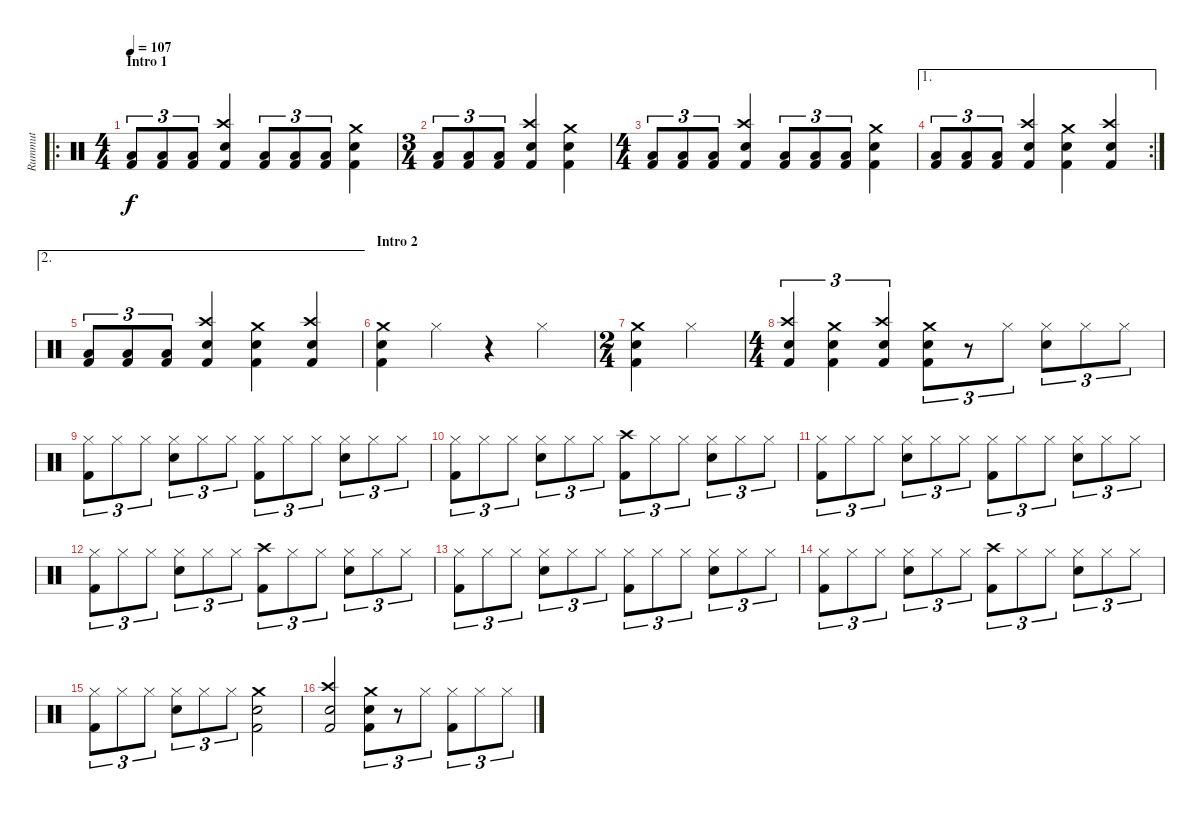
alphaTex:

\track ("Rummut" "Rummut") {instrument percussion}
\staff {score}
\articulation defaults
\ro
\ts (4 4)
\section ("" "Intro 1")
\tempo 107
\clef neutral
\ks c
("Low Floor Tom (hit)" "Kick (hit) 2").8{tu (3 2) dy f} ("Low Floor Tom (hit)" "Kick (hit) 2").8{tu (3 2)} ("Low Floor Tom (hit)" "Kick (hit) 2").8{tu (3 2)} ("Crash high (hit)" "Snare (hit) 2" "Kick (hit) 2").4 ("Low Floor Tom (hit)" "Kick (hit) 2").8{tu (3 2)} ("Low Floor Tom (hit)" "Kick (hit) 2").8{tu (3 2)} ("Low Floor Tom (hit)" "Kick (hit) 2").8{tu (3 2)} ("Crash medium (hit)" "Snare (hit) 2" "Kick (hit) 2").4 |
\ts (3 4)
("Low Floor Tom (hit)" "Kick (hit) 2").8{tu (3 2)} ("Low Floor Tom (hit)" "Kick (hit) 2").8{tu (3 2)} ("Low Floor Tom (hit)" "Kick (hit) 2").8{tu (3 2)} ("Crash high (hit)" "Snare (hit) 2" "Kick (hit) 2").4 ("Crash medium (hit)" "Snare (hit) 2" "Kick (hit) 2").4 |
\ts (4 4)
("Low Floor Tom (hit)" "Kick (hit) 2").8{tu (3 2)} ("Low Floor Tom (hit)" "Kick (hit) 2").8{tu (3 2)} ("Low Floor Tom (hit)" "Kick (hit) 2").8{tu (3 2)} ("Crash high (hit)" "Snare (hit) 2" "Kick (hit) 2").4 ("Low Floor Tom (hit)" "Kick (hit) 2").8{tu (3 2)} ("Low Floor Tom (hit)" "Kick (hit) 2").8{tu (3 2)} ("Low Floor Tom (hit)" "Kick (hit) 2").8{tu (3 2)} ("Crash medium (hit)" "Snare (hit) 2" "Kick (hit) 2").4 |
\ae 1
\rc 2
("Low Floor Tom (hit)" "Kick (hit) 2").8{tu (3 2)} ("Low Floor Tom (hit)" "Kick (hit) 2").8{tu (3 2)} ("Low Floor Tom (hit)" "Kick (hit) 2").8{tu (3 2)} ("Crash high (hit)" "Snare (hit) 2" "Kick (hit) 2").4 ("Crash medium (hit)" "Snare (hit) 2" "Kick (hit) 2").4 ("Crash high (hit)" "Snare (hit) 2" "Kick (hit) 2").4 |
\ae 2
("Low Floor Tom (hit)" "Kick (hit) 2").8{tu (3 2)} ("Low Floor Tom (hit)" "Kick (hit) 2").8{tu (3 2)} ("Low Floor Tom (hit)" "Kick (hit) 2").8{tu (3 2)} ("Crash high (hit)" "Snare (hit) 2" "Kick (hit) 2").4 ("Crash medium (hit)" "Snare (hit) 2" "Kick (hit) 2").4 ("Crash high (hit)" "Snare (hit) 2" "Kick (hit) 2").4 |
\section ("" "Intro 2")
("Crash medium (hit)" "Snare (hit) 2" "Kick (hit) 2").4 "Hi-Hat (closed)".4 r.4 "Hi-Hat (closed)".4 |
\ts (2 4)
("Crash medium (hit)" "Snare (hit) 2" "Kick (hit) 2").4 "Hi-Hat (closed)".4 |
\ts (4 4)
("Crash high (hit)" "Snare (hit) 2" "Kick (hit) 2").4{tu (3 2)} ("Crash medium (hit)" "Snare (hit) 2" "Kick (hit) 2").4{tu (3 2)} ("Crash high (hit)" "Snare (hit) 2" "Kick (hit) 2").4{tu (3 2)} ("Crash medium (hit)" "Snare (hit) 2" "Kick (hit) 2").8{tu (3 2)} r.8{tu (3 2)} "Hi-Hat (closed)".8{tu (3 2)} ("Hi-Hat (closed)" "Snare (hit) 2").8{tu (3 2)} "Hi-Hat (closed)".8{tu (3 2)} "Hi-Hat (closed)".8{tu (3 2)} |
("Hi-Hat (closed)" "Kick (hit) 2").8{tu (3 2)} "Hi-Hat (closed)".8{tu (3 2)} "Hi-Hat (closed)".8{tu (3 2)} ("Hi-Hat (closed)" "Snare (hit) 2").8{tu (3 2)} "Hi-Hat (closed)".8{tu (3 2)} "Hi-Hat (closed)".8{tu (3 2)} ("Hi-Hat (closed)" "Kick (hit) 2").8{tu (3 2)} "Hi-Hat (closed)".8{tu (3 2)} "Hi-Hat (closed)".8{tu (3 2)} ("Hi-Hat (closed)" "Snare (hit) 2").8{tu (3 2)} "Hi-Hat (closed)".8{tu (3 2)} "Hi-Hat (closed)".8{tu (3 2)} |
("Hi-Hat (closed)" "Kick (hit) 2").8{tu (3 2)} "Hi-Hat (closed)".8{tu (3 2)} "Hi-Hat (closed)".8{tu (3 2)} ("Hi-Hat (closed)" "Snare (hit) 2").8{tu (3 2)} "Hi-Hat (closed)".8{tu (3 2)} "Hi-Hat (closed)".8{tu (3 2)} ("Crash high (hit)" "Kick (hit) 2").8{tu (3 2)} "Hi-Hat (closed)".8{tu (3 2)} "Hi-Hat (closed)".8{tu (3 2)} ("Hi-Hat (closed)" "Snare (hit) 2").8{tu (3 2)} "Hi-Hat (closed)".8{tu (3 2)} "Hi-Hat (closed)".8{tu (3 2)} |
("Hi-Hat (closed)" "Kick (hit) 2").8{tu (3 2)} "Hi-Hat (closed)".8{tu (3 2)} "Hi-Hat (closed)".8{tu (3 2)} ("Hi-Hat (closed)" "Snare (hit) 2").8{tu (3 2)} "Hi-Hat (closed)".8{tu (3 2)} "Hi-Hat (closed)".8{tu (3 2)} ("Hi-Hat (closed)" "Kick (hit) 2").8{tu (3 2)} "Hi-Hat (closed)".8{tu (3 2)} "Hi-Hat (closed)".8{tu (3 2)} ("Hi-Hat (closed)" "Snare (hit) 2").8{tu (3 2)} "Hi-Hat (closed)".8{tu (3 2)} "Hi-Hat (closed)".8{tu (3 2)} |
("Hi-Hat (closed)" "Kick (hit) 2").8{tu (3 2)} "Hi-Hat (closed)".8{tu (3 2)} "Hi-Hat (closed)".8{tu (3 2)} ("Hi-Hat (closed)" "Snare (hit) 2").8{tu (3 2)} "Hi-Hat (closed)".8{tu (3 2)} "Hi-Hat (closed)".8{tu (3 2)} ("Crash high (hit)" "Kick (hit) 2").8{tu (3 2)} "Hi-Hat (closed)".8{tu (3 2)} "Hi-Hat (closed)".8{tu (3 2)} ("Hi-Hat (closed)" "Snare (hit) 2").8{tu (3 2)} "Hi-Hat (closed)".8{tu (3 2)} "Hi-Hat (closed)".8{tu (3 2)} |
("Hi-Hat (closed)" "Kick (hit) 2").8{tu (3 2)} "Hi-Hat (closed)".8{tu (3 2)} "Hi-Hat (closed)".8{tu (3 2)} ("Hi-Hat (closed)" "Snare (hit) 2").8{tu (3 2)} "Hi-Hat (closed)".8{tu (3 2)} "Hi-Hat (closed)".8{tu (3 2)} ("Hi-Hat (closed)" "Kick (hit) 2").8{tu (3 2)} "Hi-Hat (closed)".8{tu (3 2)} "Hi-Hat (closed)".8{tu (3 2)} ("Hi-Hat (closed)" "Snare (hit) 2").8{tu (3 2)} "Hi-Hat (closed)".8{tu (3 2)} "Hi-Hat (closed)".8{tu (3 2)} |
("Hi-Hat (closed)" "Kick (hit) 2").8{tu (3 2)} "Hi-Hat (closed)".8{tu (3 2)} "Hi-Hat (closed)".8{tu (3 2)} ("Hi-Hat (closed)" "Snare (hit) 2").8{tu (3 2)} "Hi-Hat (closed)".8{tu (3 2)} "Hi-Hat (closed)".8{tu (3 2)} ("Crash high (hit)" "Kick (hit) 2").8{tu (3 2)} "Hi-Hat (closed)".8{tu (3 2)} "Hi-Hat (closed)".8{tu (3 2)} ("Hi-Hat (closed)" "Snare (hit) 2").8{tu (3 2)} "Hi-Hat (closed)".8{tu (3 2)} "Hi-Hat (closed)".8{tu (3 2)} |
("Hi-Hat (closed)" "Kick (hit) 2").8{tu (3 2)} "Hi-Hat (closed)".8{tu (3 2)} "Hi-Hat (closed)".8{tu (3 2)} ("Hi-Hat (closed)" "Snare (hit) 2").8{tu (3 2)} "Hi-Hat (closed)".8{tu (3 2)} "Hi-Hat (closed)".8{tu (3 2)} ("Crash medium (hit)" "Snare (hit) 2" "Kick (hit) 2").2 |
("Crash high (hit)" "Snare (hit) 2" "Kick (hit) 2").2 ("Crash medium (hit)" "Snare (hit) 2" "Kick (hit) 2").8{tu (3 2)} r.8{tu (3 2)} "Hi-Hat (closed)".8{tu (3 2)} ("Hi-Hat (closed)" "Kick (hit) 2").8{tu (3 2)} "Hi-Hat (closed)".8{tu (3 2)} "Hi-Hat (closed)".8{tu (3 2)}
